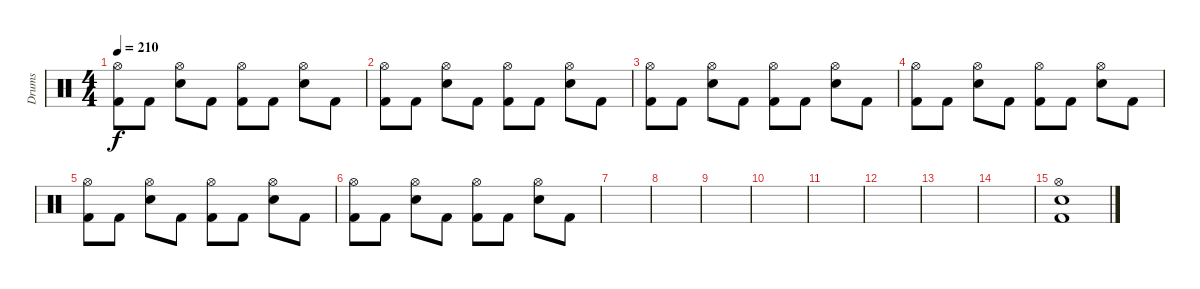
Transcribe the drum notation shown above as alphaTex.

\track ("Drums" "Drums") {instrument percussion}
\staff {score}
\articulation defaults
\ts (4 4)
\tempo 210
\clef neutral
\ks c
("Hi-Hat (open)" "Kick (hit) 2").8{dy f} "Kick (hit) 2".8 ("Hi-Hat (open)" "Electric Snare (hit)").8 "Kick (hit) 2".8 ("Hi-Hat (open)" "Kick (hit) 2").8 "Kick (hit) 2".8 ("Hi-Hat (open)" "Electric Snare (hit)").8 "Kick (hit) 2".8 |
("Hi-Hat (open)" "Kick (hit) 2").8 "Kick (hit) 2".8 ("Hi-Hat (open)" "Electric Snare (hit)").8 "Kick (hit) 2".8 ("Hi-Hat (open)" "Kick (hit) 2").8 "Kick (hit) 2".8 ("Hi-Hat (open)" "Electric Snare (hit)").8 "Kick (hit) 2".8 |
("Hi-Hat (open)" "Kick (hit) 2").8 "Kick (hit) 2".8 ("Hi-Hat (open)" "Electric Snare (hit)").8 "Kick (hit) 2".8 ("Hi-Hat (open)" "Kick (hit) 2").8 "Kick (hit) 2".8 ("Hi-Hat (open)" "Electric Snare (hit)").8 "Kick (hit) 2".8 |
("Hi-Hat (open)" "Kick (hit) 2").8 "Kick (hit) 2".8 ("Hi-Hat (open)" "Electric Snare (hit)").8 "Kick (hit) 2".8 ("Hi-Hat (open)" "Kick (hit) 2").8 "Kick (hit) 2".8 ("Hi-Hat (open)" "Electric Snare (hit)").8 "Kick (hit) 2".8 |
("Hi-Hat (open)" "Kick (hit) 2").8 "Kick (hit) 2".8 ("Hi-Hat (open)" "Electric Snare (hit)").8 "Kick (hit) 2".8 ("Hi-Hat (open)" "Kick (hit) 2").8 "Kick (hit) 2".8 ("Hi-Hat (open)" "Electric Snare (hit)").8 "Kick (hit) 2".8 |
("Hi-Hat (open)" "Kick (hit) 2").8 "Kick (hit) 2".8 ("Hi-Hat (open)" "Electric Snare (hit)").8 "Kick (hit) 2".8 ("Hi-Hat (open)" "Kick (hit) 2").8 "Kick (hit) 2".8 ("Hi-Hat (open)" "Electric Snare (hit)").8 "Kick (hit) 2".8 |
|
|
|
|
|
|
|
|
("Hi-Hat (open)" "Kick (hit) 2" "Electric Snare (hit)").1
